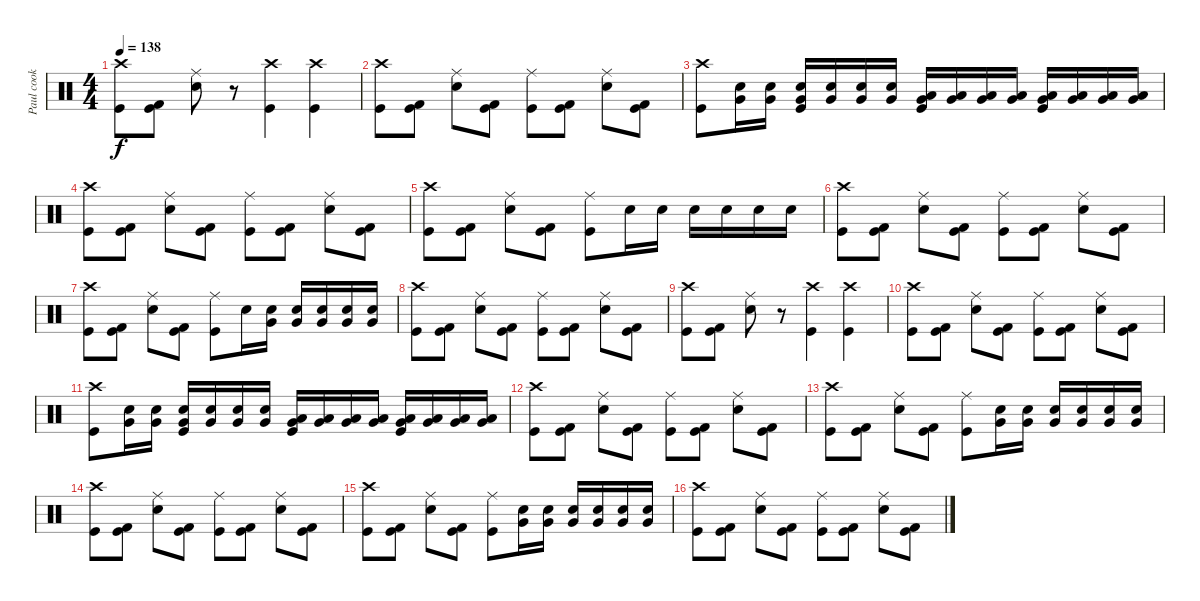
\track ("Paul cook" "Paul cook") {instrument percussion}
\staff {score}
\articulation defaults
\ts (4 4)
\tempo 138
\clef neutral
\ks c
("Crash high (hit)" "Kick (hit)").8{dy f} ("Kick (hit) 2" "Kick (hit)").8 ("Ride (middle)" "Snare (hit) 2").8 r.8 ("Crash high (hit)" "Kick (hit)").4 ("Crash high (hit)" "Kick (hit)").4 |
("Crash high (hit)" "Kick (hit)").8 ("Kick (hit) 2" "Kick (hit)").8 ("Ride (middle)" "Snare (hit) 2").8 ("Kick (hit) 2" "Kick (hit)").8 ("Ride (middle)" "Kick (hit)").8 ("Kick (hit) 2" "Kick (hit)").8 ("Ride (middle)" "Snare (hit) 2").8 ("Kick (hit) 2" "Kick (hit)").8 |
("Crash high (hit)" "Kick (hit)").8 ("Very Low Tom (hit)" "Snare (hit) 2").16 ("Very Low Tom (hit)" "Snare (hit) 2").16 ("Very Low Tom (hit)" "Snare (hit) 2" "Kick (hit)").16 ("Very Low Tom (hit)" "Snare (hit) 2").16 ("Very Low Tom (hit)" "Snare (hit) 2").16 ("Very Low Tom (hit)" "Snare (hit) 2").16 ("Very Low Tom (hit)" "Low Tom (hit)" "Kick (hit)").16 ("Very Low Tom (hit)" "Low Tom (hit)").16 ("Very Low Tom (hit)" "Low Tom (hit)").16 ("Very Low Tom (hit)" "Low Tom (hit)").16 ("Very Low Tom (hit)" "Low Tom (hit)" "Kick (hit)").16 ("Very Low Tom (hit)" "Low Tom (hit)").16 ("Very Low Tom (hit)" "Low Tom (hit)").16 ("Very Low Tom (hit)" "Low Tom (hit)").16 |
("Crash high (hit)" "Kick (hit)").8 ("Kick (hit) 2" "Kick (hit)").8 ("Ride (middle)" "Snare (hit) 2").8 ("Kick (hit) 2" "Kick (hit)").8 ("Ride (middle)" "Kick (hit)").8 ("Kick (hit) 2" "Kick (hit)").8 ("Ride (middle)" "Snare (hit) 2").8 ("Kick (hit) 2" "Kick (hit)").8 |
("Crash high (hit)" "Kick (hit)").8 ("Kick (hit) 2" "Kick (hit)").8 ("Ride (middle)" "Snare (hit) 2").8 ("Kick (hit) 2" "Kick (hit)").8 ("Ride (middle)" "Kick (hit)").8 "Snare (hit) 2".16 "Snare (hit) 2".16 "Snare (hit) 2".16 "Snare (hit) 2".16 "Snare (hit) 2".16 "Snare (hit) 2".16 |
("Crash high (hit)" "Kick (hit)").8 ("Kick (hit) 2" "Kick (hit)").8 ("Ride (middle)" "Snare (hit) 2").8 ("Kick (hit) 2" "Kick (hit)").8 ("Ride (middle)" "Kick (hit)").8 ("Kick (hit) 2" "Kick (hit)").8 ("Ride (middle)" "Snare (hit) 2").8 ("Kick (hit) 2" "Kick (hit)").8 |
("Crash high (hit)" "Kick (hit)").8 ("Kick (hit) 2" "Kick (hit)").8 ("Ride (middle)" "Snare (hit) 2").8 ("Kick (hit) 2" "Kick (hit)").8 ("Ride (middle)" "Kick (hit)").8 "Snare (hit) 2".16 ("Very Low Tom (hit)" "Snare (hit) 2").16 ("Very Low Tom (hit)" "Snare (hit) 2").16 ("Very Low Tom (hit)" "Snare (hit) 2").16 ("Very Low Tom (hit)" "Snare (hit) 2").16 ("Very Low Tom (hit)" "Snare (hit) 2").16 |
("Crash high (hit)" "Kick (hit)").8 ("Kick (hit) 2" "Kick (hit)").8 ("Ride (middle)" "Snare (hit) 2").8 ("Kick (hit) 2" "Kick (hit)").8 ("Ride (middle)" "Kick (hit)").8 ("Kick (hit) 2" "Kick (hit)").8 ("Ride (middle)" "Snare (hit) 2").8 ("Kick (hit) 2" "Kick (hit)").8 |
("Crash high (hit)" "Kick (hit)").8 ("Kick (hit) 2" "Kick (hit)").8 ("Ride (middle)" "Snare (hit) 2").8 r.8 ("Crash high (hit)" "Kick (hit)").4 ("Crash high (hit)" "Kick (hit)").4 |
("Crash high (hit)" "Kick (hit)").8 ("Kick (hit) 2" "Kick (hit)").8 ("Ride (middle)" "Snare (hit) 2").8 ("Kick (hit) 2" "Kick (hit)").8 ("Ride (middle)" "Kick (hit)").8 ("Kick (hit) 2" "Kick (hit)").8 ("Ride (middle)" "Snare (hit) 2").8 ("Kick (hit) 2" "Kick (hit)").8 |
("Crash high (hit)" "Kick (hit)").8 ("Very Low Tom (hit)" "Snare (hit) 2").16 ("Very Low Tom (hit)" "Snare (hit) 2").16 ("Very Low Tom (hit)" "Snare (hit) 2" "Kick (hit)").16 ("Very Low Tom (hit)" "Snare (hit) 2").16 ("Very Low Tom (hit)" "Snare (hit) 2").16 ("Very Low Tom (hit)" "Snare (hit) 2").16 ("Very Low Tom (hit)" "Low Tom (hit)" "Kick (hit)").16 ("Very Low Tom (hit)" "Low Tom (hit)").16 ("Very Low Tom (hit)" "Low Tom (hit)").16 ("Very Low Tom (hit)" "Low Tom (hit)").16 ("Very Low Tom (hit)" "Low Tom (hit)" "Kick (hit)").16 ("Very Low Tom (hit)" "Low Tom (hit)").16 ("Very Low Tom (hit)" "Low Tom (hit)").16 ("Very Low Tom (hit)" "Low Tom (hit)").16 |
("Crash high (hit)" "Kick (hit)").8 ("Kick (hit) 2" "Kick (hit)").8 ("Ride (middle)" "Snare (hit) 2").8 ("Kick (hit) 2" "Kick (hit)").8 ("Ride (middle)" "Kick (hit)").8 ("Kick (hit) 2" "Kick (hit)").8 ("Ride (middle)" "Snare (hit) 2").8 ("Kick (hit) 2" "Kick (hit)").8 |
("Crash high (hit)" "Kick (hit)").8 ("Kick (hit) 2" "Kick (hit)").8 ("Ride (middle)" "Snare (hit) 2").8 ("Kick (hit) 2" "Kick (hit)").8 ("Ride (middle)" "Kick (hit)").8 ("Very Low Tom (hit)" "Snare (hit) 2").16 ("Very Low Tom (hit)" "Snare (hit) 2").16 ("Very Low Tom (hit)" "Snare (hit) 2").16 ("Very Low Tom (hit)" "Snare (hit) 2").16 ("Very Low Tom (hit)" "Snare (hit) 2").16 ("Very Low Tom (hit)" "Snare (hit) 2").16 |
("Crash high (hit)" "Kick (hit)").8 ("Kick (hit) 2" "Kick (hit)").8 ("Ride (middle)" "Snare (hit) 2").8 ("Kick (hit) 2" "Kick (hit)").8 ("Ride (middle)" "Kick (hit)").8 ("Kick (hit) 2" "Kick (hit)").8 ("Ride (middle)" "Snare (hit) 2").8 ("Kick (hit) 2" "Kick (hit)").8 |
("Crash high (hit)" "Kick (hit)").8 ("Kick (hit) 2" "Kick (hit)").8 ("Ride (middle)" "Snare (hit) 2").8 ("Kick (hit) 2" "Kick (hit)").8 ("Ride (middle)" "Kick (hit)").8 ("Very Low Tom (hit)" "Snare (hit) 2").16 ("Very Low Tom (hit)" "Snare (hit) 2").16 ("Very Low Tom (hit)" "Snare (hit) 2").16 ("Very Low Tom (hit)" "Snare (hit) 2").16 ("Very Low Tom (hit)" "Snare (hit) 2").16 ("Very Low Tom (hit)" "Snare (hit) 2").16 |
("Crash high (hit)" "Kick (hit)").8 ("Kick (hit) 2" "Kick (hit)").8 ("Ride (middle)" "Snare (hit) 2").8 ("Kick (hit) 2" "Kick (hit)").8 ("Ride (middle)" "Kick (hit)").8 ("Kick (hit) 2" "Kick (hit)").8 ("Ride (middle)" "Snare (hit) 2").8 ("Kick (hit) 2" "Kick (hit)").8
